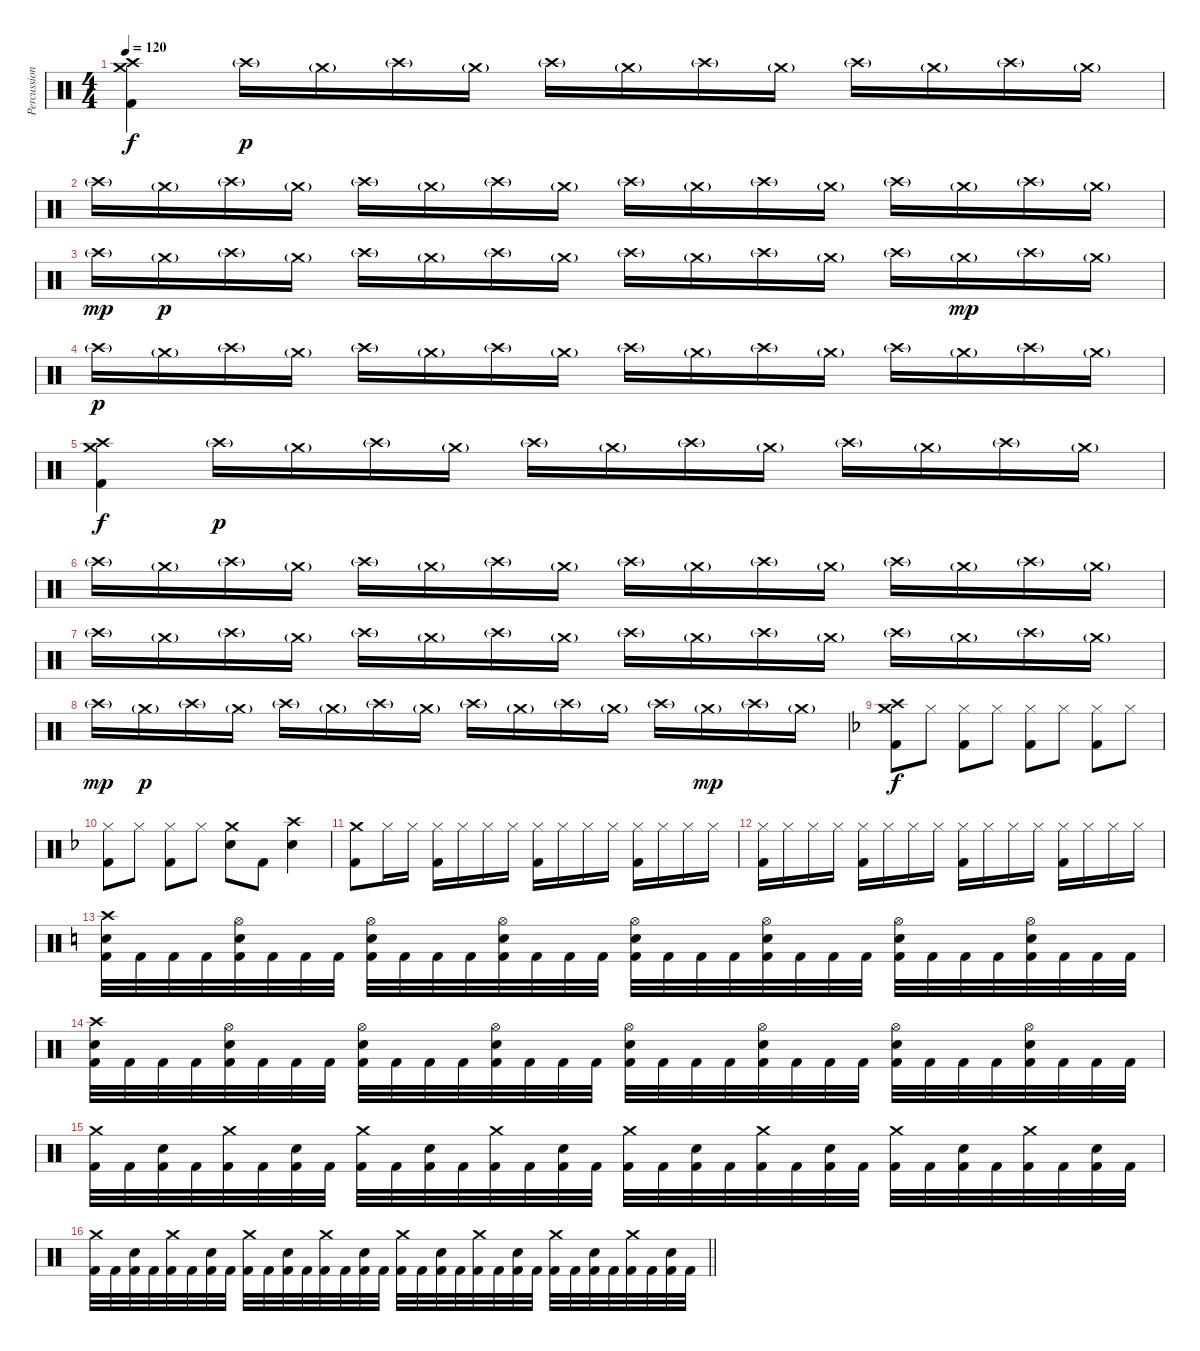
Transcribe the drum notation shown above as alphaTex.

\track ("Percussions" "Percussion") {instrument percussion}
\staff {score}
\articulation defaults
\ts (4 4)
\tempo 120
\clef neutral
\ks c
("Crash medium (hit)" "Crash high (hit)" "Kick (hit) 2").4{dy f} "Crash high (hit)"{g}.16{dy p} "Crash medium (hit)"{g}.16 "Crash high (hit)"{g}.16 "Crash medium (hit)"{g}.16 "Crash high (hit)"{g}.16 "Crash medium (hit)"{g}.16 "Crash high (hit)"{g}.16 "Crash medium (hit)"{g}.16 "Crash high (hit)"{g}.16 "Crash medium (hit)"{g}.16 "Crash high (hit)"{g}.16 "Crash medium (hit)"{g}.16 |
"Crash high (hit)"{g}.16 "Crash medium (hit)"{g}.16 "Crash high (hit)"{g}.16 "Crash medium (hit)"{g}.16 "Crash high (hit)"{g}.16 "Crash medium (hit)"{g}.16 "Crash high (hit)"{g}.16 "Crash medium (hit)"{g}.16 "Crash high (hit)"{g}.16 "Crash medium (hit)"{g}.16 "Crash high (hit)"{g}.16 "Crash medium (hit)"{g}.16 "Crash high (hit)"{g}.16 "Crash medium (hit)"{g}.16 "Crash high (hit)"{g}.16 "Crash medium (hit)"{g}.16 |
"Crash high (hit)"{g}.16{dy mp} "Crash medium (hit)"{g}.16{dy p} "Crash high (hit)"{g}.16 "Crash medium (hit)"{g}.16 "Crash high (hit)"{g}.16 "Crash medium (hit)"{g}.16 "Crash high (hit)"{g}.16 "Crash medium (hit)"{g}.16 "Crash high (hit)"{g}.16 "Crash medium (hit)"{g}.16 "Crash high (hit)"{g}.16 "Crash medium (hit)"{g}.16 "Crash high (hit)"{g}.16 "Crash medium (hit)"{g}.16{dy mp} "Crash high (hit)"{g}.16 "Crash medium (hit)"{g}.16 |
"Crash high (hit)"{g}.16{dy p} "Crash medium (hit)"{g}.16 "Crash high (hit)"{g}.16 "Crash medium (hit)"{g}.16 "Crash high (hit)"{g}.16 "Crash medium (hit)"{g}.16 "Crash high (hit)"{g}.16 "Crash medium (hit)"{g}.16 "Crash high (hit)"{g}.16 "Crash medium (hit)"{g}.16 "Crash high (hit)"{g}.16 "Crash medium (hit)"{g}.16 "Crash high (hit)"{g}.16 "Crash medium (hit)"{g}.16 "Crash high (hit)"{g}.16 "Crash medium (hit)"{g}.16 |
("Crash medium (hit)" "Crash high (hit)" "Kick (hit) 2").4{dy f} "Crash high (hit)"{g}.16{dy p} "Crash medium (hit)"{g}.16 "Crash high (hit)"{g}.16 "Crash medium (hit)"{g}.16 "Crash high (hit)"{g}.16 "Crash medium (hit)"{g}.16 "Crash high (hit)"{g}.16 "Crash medium (hit)"{g}.16 "Crash high (hit)"{g}.16 "Crash medium (hit)"{g}.16 "Crash high (hit)"{g}.16 "Crash medium (hit)"{g}.16 |
"Crash high (hit)"{g}.16 "Crash medium (hit)"{g}.16 "Crash high (hit)"{g}.16 "Crash medium (hit)"{g}.16 "Crash high (hit)"{g}.16 "Crash medium (hit)"{g}.16 "Crash high (hit)"{g}.16 "Crash medium (hit)"{g}.16 "Crash high (hit)"{g}.16 "Crash medium (hit)"{g}.16 "Crash high (hit)"{g}.16 "Crash medium (hit)"{g}.16 "Crash high (hit)"{g}.16 "Crash medium (hit)"{g}.16 "Crash high (hit)"{g}.16 "Crash medium (hit)"{g}.16 |
"Crash high (hit)"{g}.16 "Crash medium (hit)"{g}.16 "Crash high (hit)"{g}.16 "Crash medium (hit)"{g}.16 "Crash high (hit)"{g}.16 "Crash medium (hit)"{g}.16 "Crash high (hit)"{g}.16 "Crash medium (hit)"{g}.16 "Crash high (hit)"{g}.16 "Crash medium (hit)"{g}.16 "Crash high (hit)"{g}.16 "Crash medium (hit)"{g}.16 "Crash high (hit)"{g}.16 "Crash medium (hit)"{g}.16 "Crash high (hit)"{g}.16 "Crash medium (hit)"{g}.16 |
"Crash high (hit)"{g}.16{dy mp} "Crash medium (hit)"{g}.16{dy p} "Crash high (hit)"{g}.16 "Crash medium (hit)"{g}.16 "Crash high (hit)"{g}.16 "Crash medium (hit)"{g}.16 "Crash high (hit)"{g}.16 "Crash medium (hit)"{g}.16 "Crash high (hit)"{g}.16 "Crash medium (hit)"{g}.16 "Crash high (hit)"{g}.16 "Crash medium (hit)"{g}.16 "Crash high (hit)"{g}.16 "Crash medium (hit)"{g}.16{dy mp} "Crash high (hit)"{g}.16 "Crash medium (hit)"{g}.16 |
\ks f
("Crash medium (hit)" "Crash high (hit)" "Kick (hit) 2").8{dy f} "Hi-Hat (closed)".8 ("Hi-Hat (closed)" "Kick (hit) 2").8 "Hi-Hat (closed)".8 ("Hi-Hat (closed)" "Kick (hit) 2").8 "Hi-Hat (closed)".8 ("Hi-Hat (closed)" "Kick (hit) 2").8 "Hi-Hat (closed)".8 |
("Hi-Hat (closed)" "Kick (hit) 2").8 "Hi-Hat (closed)".8 ("Hi-Hat (closed)" "Kick (hit) 2").8 "Hi-Hat (closed)".8 ("Crash medium (hit)" "Electric Snare (hit)").8 "Kick (hit) 2".8 ("Crash high (hit)" "Electric Snare (hit)").4 |
("Crash medium (hit)" "Kick (hit) 2").8 "Hi-Hat (closed)".16 "Hi-Hat (closed)".16 ("Hi-Hat (closed)" "Kick (hit) 2").16 "Hi-Hat (closed)".16 "Hi-Hat (closed)".16 "Hi-Hat (closed)".16 ("Hi-Hat (closed)" "Kick (hit) 2").16 "Hi-Hat (closed)".16 "Hi-Hat (closed)".16 "Hi-Hat (closed)".16 ("Hi-Hat (closed)" "Kick (hit) 2").16 "Hi-Hat (closed)".16 "Hi-Hat (closed)".16 "Hi-Hat (closed)".16 |
("Hi-Hat (closed)" "Kick (hit) 2").16 "Hi-Hat (closed)".16 "Hi-Hat (closed)".16 "Hi-Hat (closed)".16 ("Hi-Hat (closed)" "Kick (hit) 2").16 "Hi-Hat (closed)".16 "Hi-Hat (closed)".16 "Hi-Hat (closed)".16 ("Hi-Hat (closed)" "Kick (hit) 2").16 "Hi-Hat (closed)".16 "Hi-Hat (closed)".16 "Hi-Hat (closed)".16 ("Hi-Hat (closed)" "Kick (hit) 2").16 "Hi-Hat (closed)".16 "Hi-Hat (closed)".16 "Hi-Hat (closed)".16 |
\ks c
("Crash high (hit)" "Snare (hit) 2" "Kick (hit) 2").32 "Kick (hit) 2".32 "Kick (hit) 2".32 "Kick (hit) 2".32 ("Hi-Hat (open)" "Snare (hit) 2" "Kick (hit) 2").32 "Kick (hit) 2".32 "Kick (hit) 2".32 "Kick (hit) 2".32 ("Hi-Hat (open)" "Snare (hit) 2" "Kick (hit) 2").32 "Kick (hit) 2".32 "Kick (hit) 2".32 "Kick (hit) 2".32 ("Hi-Hat (open)" "Snare (hit) 2" "Kick (hit) 2").32 "Kick (hit) 2".32 "Kick (hit) 2".32 "Kick (hit) 2".32 ("Hi-Hat (open)" "Snare (hit) 2" "Kick (hit) 2").32 "Kick (hit) 2".32 "Kick (hit) 2".32 "Kick (hit) 2".32 ("Hi-Hat (open)" "Snare (hit) 2" "Kick (hit) 2").32 "Kick (hit) 2".32 "Kick (hit) 2".32 "Kick (hit) 2".32 ("Hi-Hat (open)" "Snare (hit) 2" "Kick (hit) 2").32 "Kick (hit) 2".32 "Kick (hit) 2".32 "Kick (hit) 2".32 ("Hi-Hat (open)" "Snare (hit) 2" "Kick (hit) 2").32 "Kick (hit) 2".32 "Kick (hit) 2".32 "Kick (hit) 2".32 |
("Crash high (hit)" "Snare (hit) 2" "Kick (hit) 2").32 "Kick (hit) 2".32 "Kick (hit) 2".32 "Kick (hit) 2".32 ("Hi-Hat (open)" "Snare (hit) 2" "Kick (hit) 2").32 "Kick (hit) 2".32 "Kick (hit) 2".32 "Kick (hit) 2".32 ("Hi-Hat (open)" "Snare (hit) 2" "Kick (hit) 2").32 "Kick (hit) 2".32 "Kick (hit) 2".32 "Kick (hit) 2".32 ("Hi-Hat (open)" "Snare (hit) 2" "Kick (hit) 2").32 "Kick (hit) 2".32 "Kick (hit) 2".32 "Kick (hit) 2".32 ("Hi-Hat (open)" "Snare (hit) 2" "Kick (hit) 2").32 "Kick (hit) 2".32 "Kick (hit) 2".32 "Kick (hit) 2".32 ("Hi-Hat (open)" "Snare (hit) 2" "Kick (hit) 2").32 "Kick (hit) 2".32 "Kick (hit) 2".32 "Kick (hit) 2".32 ("Hi-Hat (open)" "Snare (hit) 2" "Kick (hit) 2").32 "Kick (hit) 2".32 "Kick (hit) 2".32 "Kick (hit) 2".32 ("Hi-Hat (open)" "Snare (hit) 2" "Kick (hit) 2").32 "Kick (hit) 2".32 "Kick (hit) 2".32 "Kick (hit) 2".32 |
("Crash medium (hit)" "Kick (hit) 2").32 "Kick (hit) 2".32 ("Electric Snare (hit)" "Kick (hit) 2").32 "Kick (hit) 2".32 ("Crash medium (hit)" "Kick (hit) 2").32 "Kick (hit) 2".32 ("Electric Snare (hit)" "Kick (hit) 2").32 "Kick (hit) 2".32 ("Crash medium (hit)" "Kick (hit) 2").32 "Kick (hit) 2".32 ("Electric Snare (hit)" "Kick (hit) 2").32 "Kick (hit) 2".32 ("Crash medium (hit)" "Kick (hit) 2").32 "Kick (hit) 2".32 ("Electric Snare (hit)" "Kick (hit) 2").32 "Kick (hit) 2".32 ("Crash medium (hit)" "Kick (hit) 2").32 "Kick (hit) 2".32 ("Electric Snare (hit)" "Kick (hit) 2").32 "Kick (hit) 2".32 ("Crash medium (hit)" "Kick (hit) 2").32 "Kick (hit) 2".32 ("Electric Snare (hit)" "Kick (hit) 2").32 "Kick (hit) 2".32 ("Crash medium (hit)" "Kick (hit) 2").32 "Kick (hit) 2".32 ("Electric Snare (hit)" "Kick (hit) 2").32 "Kick (hit) 2".32 ("Crash medium (hit)" "Kick (hit) 2").32 "Kick (hit) 2".32 ("Electric Snare (hit)" "Kick (hit) 2").32 "Kick (hit) 2".32 |
\barLineRight lightlight
("Crash medium (hit)" "Kick (hit) 2").32 "Kick (hit) 2".32 ("Electric Snare (hit)" "Kick (hit) 2").32 "Kick (hit) 2".32 ("Crash medium (hit)" "Kick (hit) 2").32 "Kick (hit) 2".32 ("Electric Snare (hit)" "Kick (hit) 2").32 "Kick (hit) 2".32 ("Crash medium (hit)" "Kick (hit) 2").32 "Kick (hit) 2".32 ("Electric Snare (hit)" "Kick (hit) 2").32 "Kick (hit) 2".32 ("Crash medium (hit)" "Kick (hit) 2").32 "Kick (hit) 2".32 ("Electric Snare (hit)" "Kick (hit) 2").32 "Kick (hit) 2".32 ("Crash medium (hit)" "Kick (hit) 2").32 "Kick (hit) 2".32 ("Electric Snare (hit)" "Kick (hit) 2").32 "Kick (hit) 2".32 ("Crash medium (hit)" "Kick (hit) 2").32 "Kick (hit) 2".32 ("Electric Snare (hit)" "Kick (hit) 2").32 "Kick (hit) 2".32 ("Crash medium (hit)" "Kick (hit) 2").32 "Kick (hit) 2".32 ("Electric Snare (hit)" "Kick (hit) 2").32 "Kick (hit) 2".32 ("Crash medium (hit)" "Kick (hit) 2").32 "Kick (hit) 2".32 ("Electric Snare (hit)" "Kick (hit) 2").32 "Kick (hit) 2".32
